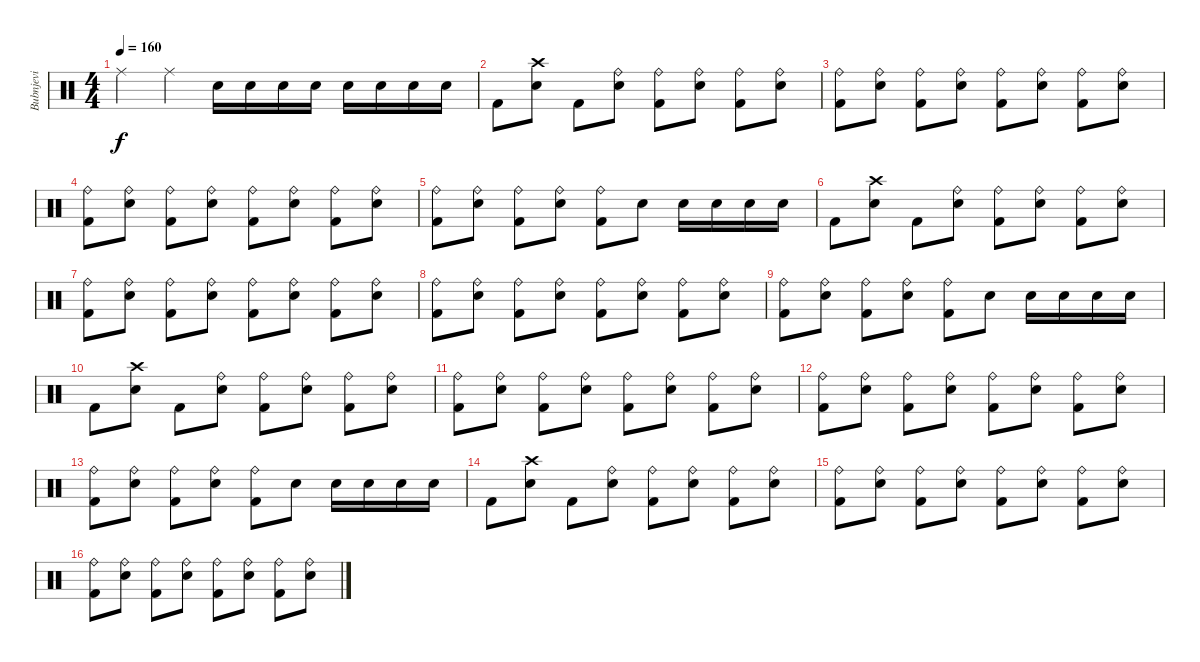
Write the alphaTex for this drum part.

\track ("Bubnjevi" "Bubnjevi") {instrument percussion}
\staff {score}
\articulation defaults
\ts (4 4)
\tempo 160
\clef neutral
\ks c "Ride (middle)".4{dy f} "Ride (middle)".4 "Snare (hit) 2".16 "Snare (hit) 2".16 "Snare (hit) 2".16 "Snare (hit) 2".16 "Snare (hit) 2".16 "Snare (hit) 2".16 "Snare (hit) 2".16 "Snare (hit) 2".16
|
"Kick (hit) 2".8 ("Crash high (hit)" "Snare (hit) 2").8 "Kick (hit) 2".8 ("Ride (bell)" "Snare (hit) 2").8 ("Ride (bell)" "Kick (hit) 2").8 ("Ride (bell)" "Snare (hit) 2").8 ("Ride (bell)" "Kick (hit) 2").8 ("Ride (bell)" "Snare (hit) 2").8 |
("Ride (bell)" "Kick (hit) 2").8 ("Ride (bell)" "Snare (hit) 2").8 ("Ride (bell)" "Kick (hit) 2").8 ("Ride (bell)" "Snare (hit) 2").8 ("Ride (bell)" "Kick (hit) 2").8 ("Ride (bell)" "Snare (hit) 2").8 ("Ride (bell)" "Kick (hit) 2").8 ("Ride (bell)" "Snare (hit) 2").8 |
("Ride (bell)" "Kick (hit) 2").8 ("Ride (bell)" "Snare (hit) 2").8 ("Ride (bell)" "Kick (hit) 2").8 ("Ride (bell)" "Snare (hit) 2").8 ("Ride (bell)" "Kick (hit) 2").8 ("Ride (bell)" "Snare (hit) 2").8 ("Ride (bell)" "Kick (hit) 2").8 ("Ride (bell)" "Snare (hit) 2").8 |
("Ride (bell)" "Kick (hit) 2").8 ("Ride (bell)" "Snare (hit) 2").8 ("Ride (bell)" "Kick (hit) 2").8 ("Ride (bell)" "Snare (hit) 2").8 ("Ride (bell)" "Kick (hit) 2").8 "Snare (hit) 2".8 "Snare (hit) 2".16 "Snare (hit) 2".16 "Snare (hit) 2".16 "Snare (hit) 2".16 |
"Kick (hit) 2".8 ("Crash high (hit)" "Snare (hit) 2").8 "Kick (hit) 2".8 ("Ride (bell)" "Snare (hit) 2").8 ("Ride (bell)" "Kick (hit) 2").8 ("Ride (bell)" "Snare (hit) 2").8 ("Ride (bell)" "Kick (hit) 2").8 ("Ride (bell)" "Snare (hit) 2").8 |
("Ride (bell)" "Kick (hit) 2").8 ("Ride (bell)" "Snare (hit) 2").8 ("Ride (bell)" "Kick (hit) 2").8 ("Ride (bell)" "Snare (hit) 2").8 ("Ride (bell)" "Kick (hit) 2").8 ("Ride (bell)" "Snare (hit) 2").8 ("Ride (bell)" "Kick (hit) 2").8 ("Ride (bell)" "Snare (hit) 2").8 |
("Ride (bell)" "Kick (hit) 2").8 ("Ride (bell)" "Snare (hit) 2").8 ("Ride (bell)" "Kick (hit) 2").8 ("Ride (bell)" "Snare (hit) 2").8 ("Ride (bell)" "Kick (hit) 2").8 ("Ride (bell)" "Snare (hit) 2").8 ("Ride (bell)" "Kick (hit) 2").8 ("Ride (bell)" "Snare (hit) 2").8 |
("Ride (bell)" "Kick (hit) 2").8 ("Ride (bell)" "Snare (hit) 2").8 ("Ride (bell)" "Kick (hit) 2").8 ("Ride (bell)" "Snare (hit) 2").8 ("Ride (bell)" "Kick (hit) 2").8 "Snare (hit) 2".8 "Snare (hit) 2".16 "Snare (hit) 2".16 "Snare (hit) 2".16 "Snare (hit) 2".16 |
"Kick (hit) 2".8 ("Crash high (hit)" "Snare (hit) 2").8 "Kick (hit) 2".8 ("Ride (bell)" "Snare (hit) 2").8 ("Ride (bell)" "Kick (hit) 2").8 ("Ride (bell)" "Snare (hit) 2").8 ("Ride (bell)" "Kick (hit) 2").8 ("Ride (bell)" "Snare (hit) 2").8 |
("Ride (bell)" "Kick (hit) 2").8 ("Ride (bell)" "Snare (hit) 2").8 ("Ride (bell)" "Kick (hit) 2").8 ("Ride (bell)" "Snare (hit) 2").8 ("Ride (bell)" "Kick (hit) 2").8 ("Ride (bell)" "Snare (hit) 2").8 ("Ride (bell)" "Kick (hit) 2").8 ("Ride (bell)" "Snare (hit) 2").8 |
("Ride (bell)" "Kick (hit) 2").8 ("Ride (bell)" "Snare (hit) 2").8 ("Ride (bell)" "Kick (hit) 2").8 ("Ride (bell)" "Snare (hit) 2").8 ("Ride (bell)" "Kick (hit) 2").8 ("Ride (bell)" "Snare (hit) 2").8 ("Ride (bell)" "Kick (hit) 2").8 ("Ride (bell)" "Snare (hit) 2").8 |
("Ride (bell)" "Kick (hit) 2").8 ("Ride (bell)" "Snare (hit) 2").8 ("Ride (bell)" "Kick (hit) 2").8 ("Ride (bell)" "Snare (hit) 2").8 ("Ride (bell)" "Kick (hit) 2").8 "Snare (hit) 2".8 "Snare (hit) 2".16 "Snare (hit) 2".16 "Snare (hit) 2".16 "Snare (hit) 2".16 |
"Kick (hit) 2".8 ("Crash high (hit)" "Snare (hit) 2").8 "Kick (hit) 2".8 ("Ride (bell)" "Snare (hit) 2").8 ("Ride (bell)" "Kick (hit) 2").8 ("Ride (bell)" "Snare (hit) 2").8 ("Ride (bell)" "Kick (hit) 2").8 ("Ride (bell)" "Snare (hit) 2").8 |
("Ride (bell)" "Kick (hit) 2").8 ("Ride (bell)" "Snare (hit) 2").8 ("Ride (bell)" "Kick (hit) 2").8 ("Ride (bell)" "Snare (hit) 2").8 ("Ride (bell)" "Kick (hit) 2").8 ("Ride (bell)" "Snare (hit) 2").8 ("Ride (bell)" "Kick (hit) 2").8 ("Ride (bell)" "Snare (hit) 2").8 |
("Ride (bell)" "Kick (hit) 2").8 ("Ride (bell)" "Snare (hit) 2").8 ("Ride (bell)" "Kick (hit) 2").8 ("Ride (bell)" "Snare (hit) 2").8 ("Ride (bell)" "Kick (hit) 2").8 ("Ride (bell)" "Snare (hit) 2").8 ("Ride (bell)" "Kick (hit) 2").8 ("Ride (bell)" "Snare (hit) 2").8
